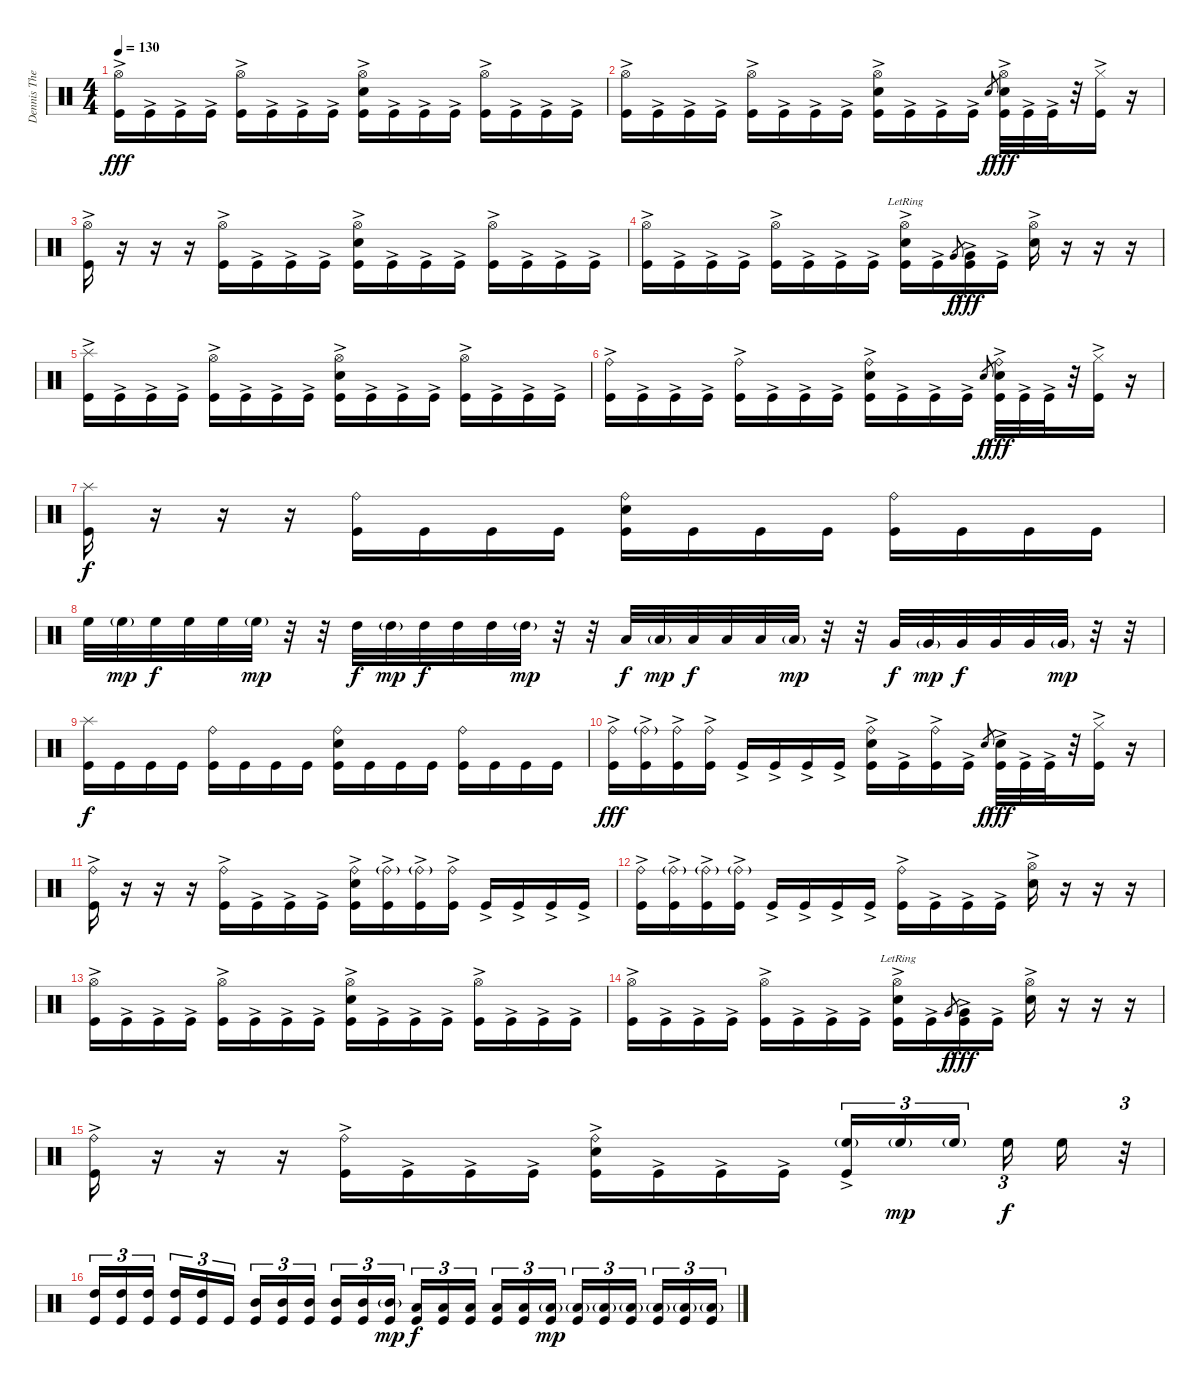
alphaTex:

\track ("Dennis The Menace" "Dennis The") {instrument percussion}
\staff {score}
\articulation defaults
\ts (4 4)
\tempo 130
\clef neutral
\ks c
("Hi-Hat (open)" "Kick (hit)"{ac}).16{dy fff} "Kick (hit)"{ac}.16 "Kick (hit)"{ac}.16 "Kick (hit)"{ac}.16 ("Hi-Hat (open)" "Kick (hit)"{ac}).16 "Kick (hit)"{ac}.16 "Kick (hit)"{ac}.16 "Kick (hit)"{ac}.16 ("Hi-Hat (open)" "Electric Snare (hit)" "Kick (hit)"{ac}).16 "Kick (hit)"{ac}.16 "Kick (hit)"{ac}.16 "Kick (hit)"{ac}.16 ("Hi-Hat (open)" "Kick (hit)"{ac}).16 "Kick (hit)"{ac}.16 "Kick (hit)"{ac}.16 "Kick (hit)"{ac}.16 |
("Hi-Hat (open)" "Kick (hit)"{ac}).16 "Kick (hit)"{ac}.16 "Kick (hit)"{ac}.16 "Kick (hit)"{ac}.16 ("Hi-Hat (open)" "Kick (hit)"{ac}).16 "Kick (hit)"{ac}.16 "Kick (hit)"{ac}.16 "Kick (hit)"{ac}.16 ("Hi-Hat (open)" "Electric Snare (hit)"{ac} "Kick (hit)"{ac}).16 "Kick (hit)"{ac}.16 "Kick (hit)"{ac}.16 "Kick (hit)"{ac}.16 "Electric Snare (hit)".8{gr dy f} ("Hi-Hat (open)" "Electric Snare (hit)"{ac} "Kick (hit)"{ac}).32{dy fff} "Kick (hit)"{ac}.32 "Kick (hit)"{ac}.32 r.32 ("Hi-Hat (closed)" "Kick (hit)"{ac}).16 r.16 |
("Hi-Hat (open)" "Kick (hit)"{ac}).16 r.16 r.16 r.16 ("Hi-Hat (open)" "Kick (hit)"{ac}).16 "Kick (hit)"{ac}.16 "Kick (hit)"{ac}.16 "Kick (hit)"{ac}.16 ("Hi-Hat (open)" "Electric Snare (hit)" "Kick (hit)"{ac}).16 "Kick (hit)"{ac}.16 "Kick (hit)"{ac}.16 "Kick (hit)"{ac}.16 ("Hi-Hat (open)" "Kick (hit)"{ac}).16 "Kick (hit)"{ac}.16 "Kick (hit)"{ac}.16 "Kick (hit)"{ac}.16 |
("Hi-Hat (open)" "Kick (hit)"{ac}).16 "Kick (hit)"{ac}.16 "Kick (hit)"{ac}.16 "Kick (hit)"{ac}.16 ("Hi-Hat (open)" "Kick (hit)"{ac}).16 "Kick (hit)"{ac}.16 "Kick (hit)"{ac}.16 "Kick (hit)"{ac}.16 ("Hi-Hat (open)" "Electric Snare (hit)"{ac lr} "Kick (hit)"{ac}).16 "Kick (hit)"{ac}.16 "Very Low Tom (hit)".8{gr dy f} ("Very Low Tom (hit)" "Kick (hit)"{ac}).16{dy fff} "Kick (hit)"{ac}.16 ("Hi-Hat (open)" "Electric Snare (hit)"{ac}).16 r.16 r.16 r.16 |
("Splash (hit)" "Kick (hit)"{ac}).16 "Kick (hit)"{ac}.16 "Kick (hit)"{ac}.16 "Kick (hit)"{ac}.16 ("Hi-Hat (open)" "Kick (hit)"{ac}).16 "Kick (hit)"{ac}.16 "Kick (hit)"{ac}.16 "Kick (hit)"{ac}.16 ("Hi-Hat (open)" "Electric Snare (hit)" "Kick (hit)"{ac}).16 "Kick (hit)"{ac}.16 "Kick (hit)"{ac}.16 "Kick (hit)"{ac}.16 ("Hi-Hat (open)" "Kick (hit)"{ac}).16 "Kick (hit)"{ac}.16 "Kick (hit)"{ac}.16 "Kick (hit)"{ac}.16 |
("Ride (bell)" "Kick (hit)"{ac}).16 "Kick (hit)"{ac}.16 "Kick (hit)"{ac}.16 "Kick (hit)"{ac}.16 ("Ride (bell)" "Kick (hit)"{ac}).16 "Kick (hit)"{ac}.16 "Kick (hit)"{ac}.16 "Kick (hit)"{ac}.16 ("Ride (bell)" "Electric Snare (hit)"{ac} "Kick (hit)"{ac}).16 "Kick (hit)"{ac}.16 "Kick (hit)"{ac}.16 "Kick (hit)"{ac}.16 "Electric Snare (hit)".8{gr dy f} ("Ride (bell)" "Electric Snare (hit)"{ac} "Kick (hit)"{ac}).32{dy fff} "Kick (hit)"{ac}.32 "Kick (hit)"{ac}.32 r.32 ("Hi-Hat (closed)" "Kick (hit)"{ac}).16 r.16 |
("Splash (hit)" "Kick (hit)").16{dy f} r.16 r.16 r.16 ("Ride (bell)" "Kick (hit)").16 "Kick (hit)".16 "Kick (hit)".16 "Kick (hit)".16 ("Ride (bell)" "Electric Snare (hit)" "Kick (hit)").16 "Kick (hit)".16 "Kick (hit)".16 "Kick (hit)".16 ("Ride (bell)" "Kick (hit)").16 "Kick (hit)".16 "Kick (hit)".16 "Kick (hit)".16 |
"High Floor Tom (hit)".32 "High Floor Tom (hit)"{g}.32{dy mp} "High Floor Tom (hit)".32{dy f} "High Floor Tom (hit)".32 "High Floor Tom (hit)".32 "High Floor Tom (hit)"{g}.32{dy mp} r.32 r.32 "High Tom (hit)".32{dy f} "High Tom (hit)"{g}.32{dy mp} "High Tom (hit)".32{dy f} "High Tom (hit)".32 "High Tom (hit)".32 "High Tom (hit)"{g}.32{dy mp} r.32 r.32 "Low Tom (hit)".32{dy f} "Low Tom (hit)"{g}.32{dy mp} "Low Tom (hit)".32{dy f} "Low Tom (hit)".32 "Low Tom (hit)".32 "Low Tom (hit)"{g}.32{dy mp} r.32 r.32 "Very Low Tom (hit)".32{dy f} "Very Low Tom (hit)"{g}.32{dy mp} "Very Low Tom (hit)".32{dy f} "Very Low Tom (hit)".32 "Very Low Tom (hit)".32 "Very Low Tom (hit)"{g}.32{dy mp} r.32 r.32 |
("Splash (hit)" "Kick (hit)").16{dy f} "Kick (hit)".16 "Kick (hit)".16 "Kick (hit)".16 ("Ride (bell)" "Kick (hit)").16 "Kick (hit)".16 "Kick (hit)".16 "Kick (hit)".16 ("Ride (bell)" "Electric Snare (hit)" "Kick (hit)").16 "Kick (hit)".16 "Kick (hit)".16 "Kick (hit)".16 ("Ride (bell)" "Kick (hit)").16 "Kick (hit)".16 "Kick (hit)".16 "Kick (hit)".16 |
("Ride (bell)" "Kick (hit)"{ac}).16{dy fff} ("Ride (bell)"{g} "Kick (hit)"{ac}).16 ("Ride (bell)" "Kick (hit)"{ac}).16 ("Ride (bell)" "Kick (hit)"{ac}).16 "Kick (hit)"{ac}.16 "Kick (hit)"{ac}.16 "Kick (hit)"{ac}.16 "Kick (hit)"{ac}.16 ("Ride (bell)" "Electric Snare (hit)"{ac} "Kick (hit)"{ac}).16 "Kick (hit)"{ac}.16 ("Ride (bell)" "Kick (hit)"{ac}).16 "Kick (hit)"{ac}.16 "Electric Snare (hit)".8{gr dy f} ("Electric Snare (hit)"{ac} "Kick (hit)"{ac}).32{dy fff} "Kick (hit)"{ac}.32 "Kick (hit)"{ac}.32 r.32 ("Hi-Hat (closed)" "Kick (hit)"{ac}).16 r.16 |
("Ride (bell)" "Kick (hit)"{ac}).16 r.16 r.16 r.16 ("Ride (bell)" "Kick (hit)"{ac}).16 "Kick (hit)"{ac}.16 "Kick (hit)"{ac}.16 "Kick (hit)"{ac}.16 ("Ride (bell)" "Electric Snare (hit)" "Kick (hit)"{ac}).16 ("Ride (bell)"{g} "Kick (hit)"{ac}).16 ("Ride (bell)"{g} "Kick (hit)"{ac}).16 ("Ride (bell)" "Kick (hit)"{ac}).16 "Kick (hit)"{ac}.16 "Kick (hit)"{ac}.16 "Kick (hit)"{ac}.16 "Kick (hit)"{ac}.16 |
("Ride (bell)" "Kick (hit)"{ac}).16 ("Ride (bell)"{g} "Kick (hit)"{ac}).16 ("Ride (bell)"{g} "Kick (hit)"{ac}).16 ("Ride (bell)"{g} "Kick (hit)"{ac}).16 "Kick (hit)"{ac}.16 "Kick (hit)"{ac}.16 "Kick (hit)"{ac}.16 "Kick (hit)"{ac}.16 ("Ride (bell)" "Kick (hit)"{ac}).16 "Kick (hit)"{ac}.16 "Kick (hit)"{ac}.16 "Kick (hit)"{ac}.16 ("Hi-Hat (open)" "Electric Snare (hit)"{ac}).16 r.16 r.16 r.16 |
("Hi-Hat (open)" "Kick (hit)"{ac}).16 "Kick (hit)"{ac}.16 "Kick (hit)"{ac}.16 "Kick (hit)"{ac}.16 ("Hi-Hat (open)" "Kick (hit)"{ac}).16 "Kick (hit)"{ac}.16 "Kick (hit)"{ac}.16 "Kick (hit)"{ac}.16 ("Hi-Hat (open)" "Electric Snare (hit)" "Kick (hit)"{ac}).16 "Kick (hit)"{ac}.16 "Kick (hit)"{ac}.16 "Kick (hit)"{ac}.16 ("Hi-Hat (open)" "Kick (hit)"{ac}).16 "Kick (hit)"{ac}.16 "Kick (hit)"{ac}.16 "Kick (hit)"{ac}.16 |
("Hi-Hat (open)" "Kick (hit)"{ac}).16 "Kick (hit)"{ac}.16 "Kick (hit)"{ac}.16 "Kick (hit)"{ac}.16 ("Hi-Hat (open)" "Kick (hit)"{ac}).16 "Kick (hit)"{ac}.16 "Kick (hit)"{ac}.16 "Kick (hit)"{ac}.16 ("Hi-Hat (open)" "Electric Snare (hit)"{ac lr} "Kick (hit)"{ac}).16 "Kick (hit)"{ac}.16 "Very Low Tom (hit)".8{gr dy f} ("Very Low Tom (hit)" "Kick (hit)"{ac}).16{dy fff} "Kick (hit)"{ac}.16 ("Hi-Hat (open)" "Electric Snare (hit)"{ac}).16 r.16 r.16 r.16 |
("Ride (bell)" "Kick (hit)"{ac}).16 r.16 r.16 r.16 ("Ride (bell)" "Kick (hit)"{ac}).16 "Kick (hit)"{ac}.16 "Kick (hit)"{ac}.16 "Kick (hit)"{ac}.16 ("Ride (bell)" "Electric Snare (hit)" "Kick (hit)"{ac}).16 "Kick (hit)"{ac}.16 "Kick (hit)"{ac}.16 "Kick (hit)"{ac}.16 ("High Floor Tom (hit)"{g} "Kick (hit)"{ac}).16{tu (3 2)} "High Floor Tom (hit)"{g}.16{tu (3 2) dy mp} "High Floor Tom (hit)"{g}.16{tu (3 2)} "High Floor Tom (hit)".16{tu (3 2) dy f} "High Floor Tom (hit)".16 r.32{tu (3 2)} |
("High Tom (hit)" "Kick (hit)").16{tu (3 2)} ("High Tom (hit)" "Kick (hit)").16{tu (3 2)} ("High Tom (hit)" "Kick (hit)").16{tu (3 2)} ("High Tom (hit)" "Kick (hit)").16{tu (3 2)} ("High Tom (hit)" "Kick (hit)").16{tu (3 2)} "Kick (hit)".16{tu (3 2)} ("Mid Tom (hit)" "Kick (hit)").16{tu (3 2)} ("Mid Tom (hit)" "Kick (hit)").16{tu (3 2)} ("Mid Tom (hit)" "Kick (hit)").16{tu (3 2)} ("Mid Tom (hit)" "Kick (hit)").16{tu (3 2)} ("Mid Tom (hit)" "Kick (hit)").16{tu (3 2)} ("Mid Tom (hit)"{g} "Kick (hit)").16{tu (3 2) dy mp} ("Low Floor Tom (hit)" "Kick (hit)").16{tu (3 2) dy f} ("Low Floor Tom (hit)" "Kick (hit)").16{tu (3 2)} ("Low Floor Tom (hit)" "Kick (hit)").16{tu (3 2)} ("Low Floor Tom (hit)" "Kick (hit)").16{tu (3 2)} ("Low Floor Tom (hit)" "Kick (hit)").16{tu (3 2)} ("Low Floor Tom (hit)"{g} "Kick (hit)").16{tu (3 2) dy mp} ("Low Floor Tom (hit)"{g} "Kick (hit)").16{tu (3 2)} ("Low Floor Tom (hit)"{g} "Kick (hit)").16{tu (3 2)} ("Low Floor Tom (hit)"{g} "Kick (hit)").16{tu (3 2)} ("Low Floor Tom (hit)"{g} "Kick (hit)").16{tu (3 2)} ("Low Floor Tom (hit)"{g} "Kick (hit)").16{tu (3 2)} ("Low Floor Tom (hit)"{g} "Kick (hit)").16{tu (3 2)}
